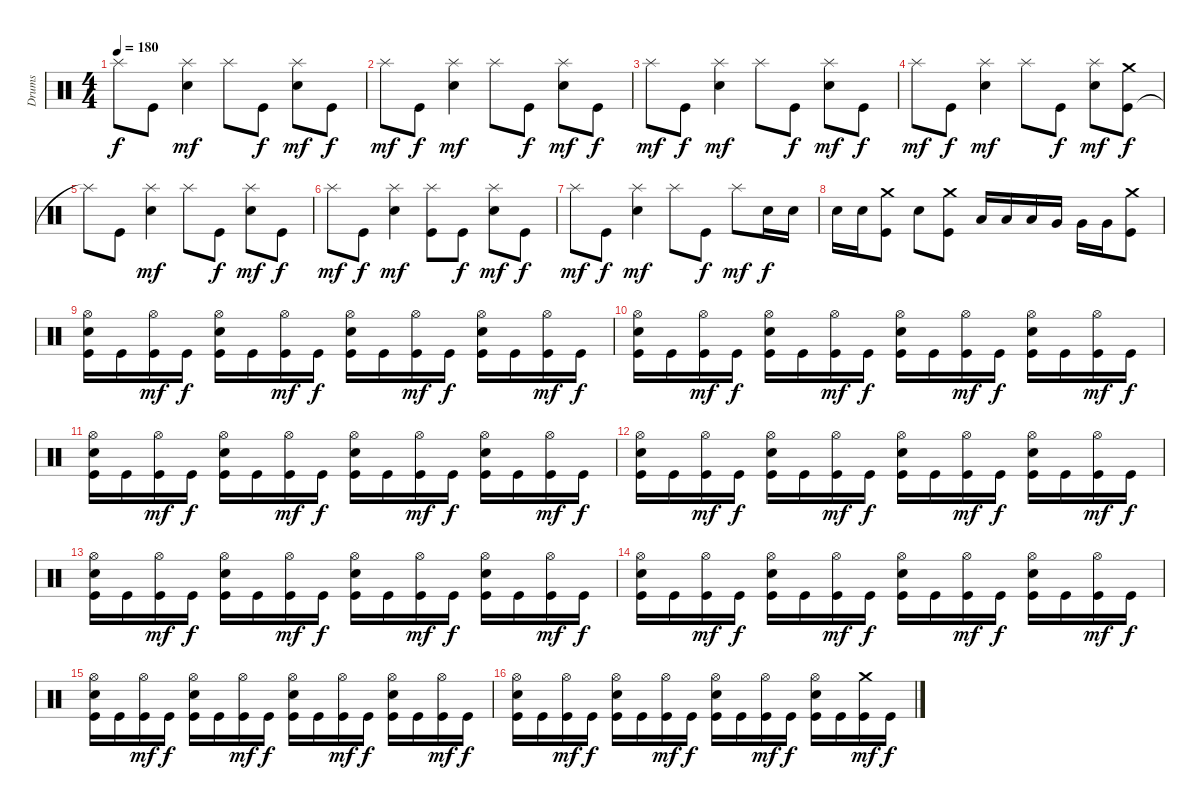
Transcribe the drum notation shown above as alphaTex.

\track ("Drums" "Drums") {instrument percussion}
\staff {score}
\articulation defaults
\ts (4 4)
\tempo 180
\clef neutral
\ks c "Splash (hit)"{t}.8{dy f} "Kick (hit)".8
("Electric Snare (hit)" "Splash (hit)").4{dy mf} "Splash (hit)".8 "Kick (hit)".8{dy f} ("Electric Snare (hit)" "Splash (hit)").8{dy mf} "Kick (hit)".8{dy f} |
"Splash (hit)".8{dy mf} "Kick (hit)".8{dy f} ("Electric Snare (hit)" "Splash (hit)").4{dy mf} "Splash (hit)".8 "Kick (hit)".8{dy f} ("Electric Snare (hit)" "Splash (hit)").8{dy mf} "Kick (hit)".8{dy f} |
"Splash (hit)".8{dy mf} "Kick (hit)".8{dy f} ("Electric Snare (hit)" "Splash (hit)").4{dy mf} "Splash (hit)".8 "Kick (hit)".8{dy f} ("Electric Snare (hit)" "Splash (hit)").8{dy mf} "Kick (hit)".8{dy f} |
"Splash (hit)".8{dy mf} "Kick (hit)".8{dy f} ("Electric Snare (hit)" "Splash (hit)").4{dy mf} "Splash (hit)".8 "Kick (hit)".8{dy f} ("Electric Snare (hit)" "Splash (hit)").8{dy mf} ("Kick (hit)" "Crash medium (hit)").8{dy f} |
"Splash (hit)"{t}.8 "Kick (hit)".8 ("Electric Snare (hit)" "Splash (hit)").4{dy mf} "Splash (hit)".8 "Kick (hit)".8{dy f} ("Electric Snare (hit)" "Splash (hit)").8{dy mf} "Kick (hit)".8{dy f} |
"Splash (hit)".8{dy mf} "Kick (hit)".8{dy f} ("Electric Snare (hit)" "Splash (hit)").4{dy mf} ("Kick (hit)" "Splash (hit)").8 "Kick (hit)".8{dy f} ("Electric Snare (hit)" "Splash (hit)").8{dy mf} "Kick (hit)".8{dy f} |
"Splash (hit)".8{dy mf} "Kick (hit)".8{dy f} ("Electric Snare (hit)" "Splash (hit)").4{dy mf} "Splash (hit)".8 "Kick (hit)".8{dy f} "Splash (hit)".8{dy mf} "Electric Snare (hit)".16{dy f} "Electric Snare (hit)".16 |
"Electric Snare (hit)".16 "Electric Snare (hit)".16 ("Kick (hit)" "Crash medium (hit)").8 "Electric Snare (hit)".8 ("Kick (hit)" "Crash medium (hit)").8 "Low Tom (hit)".16 "Low Tom (hit)".16 "Low Tom (hit)".16 "Very Low Tom (hit)".16 "Very Low Tom (hit)".16 "Very Low Tom (hit)".16 ("Kick (hit)" "Crash medium (hit)").8 |
("Kick (hit)" "Electric Snare (hit)" "Hi-Hat (open)").16 "Kick (hit)".16 ("Kick (hit)" "Hi-Hat (open)").16{dy mf} "Kick (hit)".16{dy f} ("Kick (hit)" "Electric Snare (hit)" "Hi-Hat (open)").16 "Kick (hit)".16 ("Kick (hit)" "Hi-Hat (open)").16{dy mf} "Kick (hit)".16{dy f} ("Kick (hit)" "Electric Snare (hit)" "Hi-Hat (open)").16 "Kick (hit)".16 ("Kick (hit)" "Hi-Hat (open)").16{dy mf} "Kick (hit)".16{dy f} ("Kick (hit)" "Electric Snare (hit)" "Hi-Hat (open)").16 "Kick (hit)".16 ("Kick (hit)" "Hi-Hat (open)").16{dy mf} "Kick (hit)".16{dy f} |
("Kick (hit)" "Electric Snare (hit)" "Hi-Hat (open)").16 "Kick (hit)".16 ("Kick (hit)" "Hi-Hat (open)").16{dy mf} "Kick (hit)".16{dy f} ("Kick (hit)" "Electric Snare (hit)" "Hi-Hat (open)").16 "Kick (hit)".16 ("Kick (hit)" "Hi-Hat (open)").16{dy mf} "Kick (hit)".16{dy f} ("Kick (hit)" "Electric Snare (hit)" "Hi-Hat (open)").16 "Kick (hit)".16 ("Kick (hit)" "Hi-Hat (open)").16{dy mf} "Kick (hit)".16{dy f} ("Kick (hit)" "Electric Snare (hit)" "Hi-Hat (open)").16 "Kick (hit)".16 ("Kick (hit)" "Hi-Hat (open)").16{dy mf} "Kick (hit)".16{dy f} |
("Kick (hit)" "Electric Snare (hit)" "Hi-Hat (open)").16 "Kick (hit)".16 ("Kick (hit)" "Hi-Hat (open)").16{dy mf} "Kick (hit)".16{dy f} ("Kick (hit)" "Electric Snare (hit)" "Hi-Hat (open)").16 "Kick (hit)".16 ("Kick (hit)" "Hi-Hat (open)").16{dy mf} "Kick (hit)".16{dy f} ("Kick (hit)" "Electric Snare (hit)" "Hi-Hat (open)").16 "Kick (hit)".16 ("Kick (hit)" "Hi-Hat (open)").16{dy mf} "Kick (hit)".16{dy f} ("Kick (hit)" "Electric Snare (hit)" "Hi-Hat (open)").16 "Kick (hit)".16 ("Kick (hit)" "Hi-Hat (open)").16{dy mf} "Kick (hit)".16{dy f} |
("Kick (hit)" "Electric Snare (hit)" "Hi-Hat (open)").16 "Kick (hit)".16 ("Kick (hit)" "Hi-Hat (open)").16{dy mf} "Kick (hit)".16{dy f} ("Kick (hit)" "Electric Snare (hit)" "Hi-Hat (open)").16 "Kick (hit)".16 ("Kick (hit)" "Hi-Hat (open)").16{dy mf} "Kick (hit)".16{dy f} ("Kick (hit)" "Electric Snare (hit)" "Hi-Hat (open)").16 "Kick (hit)".16 ("Kick (hit)" "Hi-Hat (open)").16{dy mf} "Kick (hit)".16{dy f} ("Kick (hit)" "Electric Snare (hit)" "Hi-Hat (open)").16 "Kick (hit)".16 ("Kick (hit)" "Hi-Hat (open)").16{dy mf} "Kick (hit)".16{dy f} |
("Kick (hit)" "Electric Snare (hit)" "Hi-Hat (open)").16 "Kick (hit)".16 ("Kick (hit)" "Hi-Hat (open)").16{dy mf} "Kick (hit)".16{dy f} ("Kick (hit)" "Electric Snare (hit)" "Hi-Hat (open)").16 "Kick (hit)".16 ("Kick (hit)" "Hi-Hat (open)").16{dy mf} "Kick (hit)".16{dy f} ("Kick (hit)" "Electric Snare (hit)" "Hi-Hat (open)").16 "Kick (hit)".16 ("Kick (hit)" "Hi-Hat (open)").16{dy mf} "Kick (hit)".16{dy f} ("Kick (hit)" "Electric Snare (hit)" "Hi-Hat (open)").16 "Kick (hit)".16 ("Kick (hit)" "Hi-Hat (open)").16{dy mf} "Kick (hit)".16{dy f} |
("Kick (hit)" "Electric Snare (hit)" "Hi-Hat (open)").16 "Kick (hit)".16 ("Kick (hit)" "Hi-Hat (open)").16{dy mf} "Kick (hit)".16{dy f} ("Kick (hit)" "Electric Snare (hit)" "Hi-Hat (open)").16 "Kick (hit)".16 ("Kick (hit)" "Hi-Hat (open)").16{dy mf} "Kick (hit)".16{dy f} ("Kick (hit)" "Electric Snare (hit)" "Hi-Hat (open)").16 "Kick (hit)".16 ("Kick (hit)" "Hi-Hat (open)").16{dy mf} "Kick (hit)".16{dy f} ("Kick (hit)" "Electric Snare (hit)" "Hi-Hat (open)").16 "Kick (hit)".16 ("Kick (hit)" "Hi-Hat (open)").16{dy mf} "Kick (hit)".16{dy f} |
("Kick (hit)" "Electric Snare (hit)" "Hi-Hat (open)").16 "Kick (hit)".16 ("Kick (hit)" "Hi-Hat (open)").16{dy mf} "Kick (hit)".16{dy f} ("Kick (hit)" "Electric Snare (hit)" "Hi-Hat (open)").16 "Kick (hit)".16 ("Kick (hit)" "Hi-Hat (open)").16{dy mf} "Kick (hit)".16{dy f} ("Kick (hit)" "Electric Snare (hit)" "Hi-Hat (open)").16 "Kick (hit)".16 ("Kick (hit)" "Hi-Hat (open)").16{dy mf} "Kick (hit)".16{dy f} ("Kick (hit)" "Electric Snare (hit)" "Hi-Hat (open)").16 "Kick (hit)".16 ("Kick (hit)" "Hi-Hat (open)").16{dy mf} "Kick (hit)".16{dy f} |
("Kick (hit)" "Electric Snare (hit)" "Hi-Hat (open)").16 "Kick (hit)".16 ("Kick (hit)" "Hi-Hat (open)").16{dy mf} "Kick (hit)".16{dy f} ("Kick (hit)" "Electric Snare (hit)" "Hi-Hat (open)").16 "Kick (hit)".16 ("Kick (hit)" "Hi-Hat (open)").16{dy mf} "Kick (hit)".16{dy f} ("Kick (hit)" "Electric Snare (hit)" "Hi-Hat (open)").16 "Kick (hit)".16 ("Kick (hit)" "Hi-Hat (open)").16{dy mf} "Kick (hit)".16{dy f} ("Kick (hit)" "Electric Snare (hit)" "Hi-Hat (open)").16 "Kick (hit)".16 ("Kick (hit)" "Crash medium (hit)").16{dy mf} "Kick (hit)".16{dy f}
